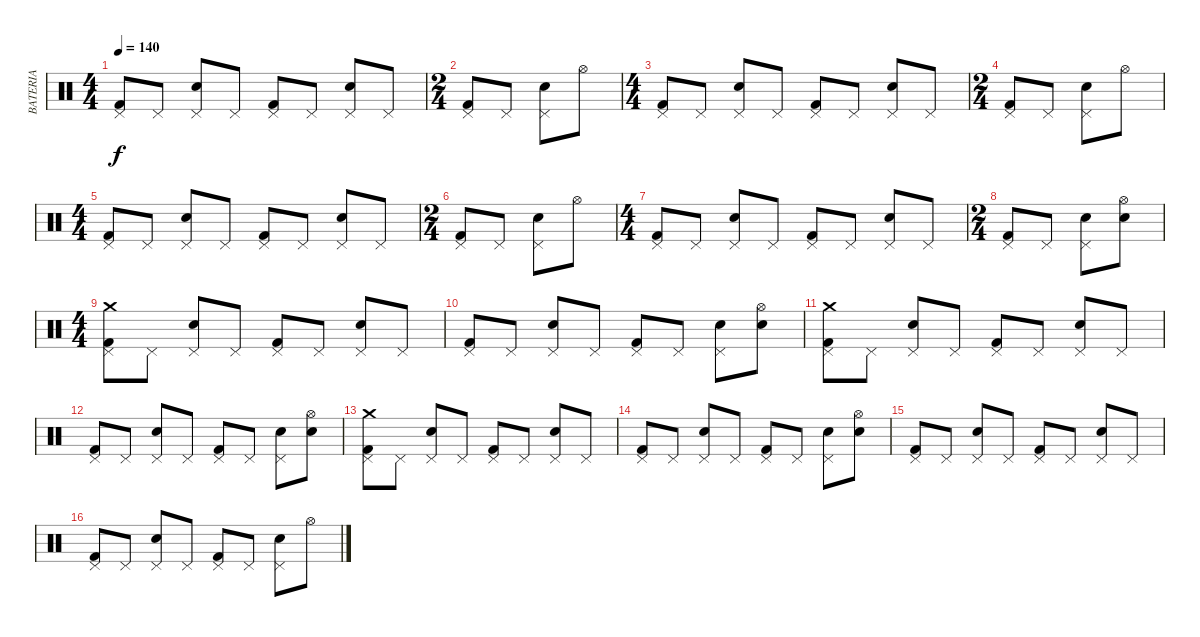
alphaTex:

\track ("BATERIA" "BATERIA") {instrument percussion}
\staff {score}
\articulation defaults
\ts (4 4)
\tempo 140
\clef neutral
\ks c
("Kick (hit) 2" "Pedal Hi-Hat (hit)").8{dy f} "Pedal Hi-Hat (hit)".8 ("Snare (hit) 2" "Pedal Hi-Hat (hit)").8 "Pedal Hi-Hat (hit)".8 ("Kick (hit) 2" "Pedal Hi-Hat (hit)").8 "Pedal Hi-Hat (hit)".8 ("Snare (hit) 2" "Pedal Hi-Hat (hit)").8 "Pedal Hi-Hat (hit)".8 |
\ts (2 4)
("Kick (hit) 2" "Pedal Hi-Hat (hit)").8 "Pedal Hi-Hat (hit)".8 ("Snare (hit) 2" "Pedal Hi-Hat (hit)").8 "Hi-Hat (open)".8 |
\ts (4 4)
("Kick (hit) 2" "Pedal Hi-Hat (hit)").8 "Pedal Hi-Hat (hit)".8 ("Snare (hit) 2" "Pedal Hi-Hat (hit)").8 "Pedal Hi-Hat (hit)".8 ("Kick (hit) 2" "Pedal Hi-Hat (hit)").8 "Pedal Hi-Hat (hit)".8 ("Snare (hit) 2" "Pedal Hi-Hat (hit)").8 "Pedal Hi-Hat (hit)".8 |
\ts (2 4)
("Kick (hit) 2" "Pedal Hi-Hat (hit)").8 "Pedal Hi-Hat (hit)".8 ("Snare (hit) 2" "Pedal Hi-Hat (hit)").8 "Hi-Hat (open)".8 |
\ts (4 4)
("Kick (hit) 2" "Pedal Hi-Hat (hit)").8 "Pedal Hi-Hat (hit)".8 ("Snare (hit) 2" "Pedal Hi-Hat (hit)").8 "Pedal Hi-Hat (hit)".8 ("Kick (hit) 2" "Pedal Hi-Hat (hit)").8 "Pedal Hi-Hat (hit)".8 ("Snare (hit) 2" "Pedal Hi-Hat (hit)").8 "Pedal Hi-Hat (hit)".8 |
\ts (2 4)
("Kick (hit) 2" "Pedal Hi-Hat (hit)").8 "Pedal Hi-Hat (hit)".8 ("Snare (hit) 2" "Pedal Hi-Hat (hit)").8 "Hi-Hat (open)".8 |
\ts (4 4)
("Kick (hit) 2" "Pedal Hi-Hat (hit)").8 "Pedal Hi-Hat (hit)".8 ("Snare (hit) 2" "Pedal Hi-Hat (hit)").8 "Pedal Hi-Hat (hit)".8 ("Kick (hit) 2" "Pedal Hi-Hat (hit)").8 "Pedal Hi-Hat (hit)".8 ("Snare (hit) 2" "Pedal Hi-Hat (hit)").8 "Pedal Hi-Hat (hit)".8 |
\ts (2 4)
("Kick (hit) 2" "Pedal Hi-Hat (hit)").8 "Pedal Hi-Hat (hit)".8 ("Snare (hit) 2" "Pedal Hi-Hat (hit)").8 ("Snare (hit) 2" "Hi-Hat (open)").8 |
\ts (4 4)
("Kick (hit) 2" "Pedal Hi-Hat (hit)" "Crash medium (hit)").8 "Pedal Hi-Hat (hit)".8 ("Snare (hit) 2" "Pedal Hi-Hat (hit)").8 "Pedal Hi-Hat (hit)".8 ("Kick (hit) 2" "Pedal Hi-Hat (hit)").8 "Pedal Hi-Hat (hit)".8 ("Snare (hit) 2" "Pedal Hi-Hat (hit)").8 "Pedal Hi-Hat (hit)".8 |
("Kick (hit) 2" "Pedal Hi-Hat (hit)").8 "Pedal Hi-Hat (hit)".8 ("Snare (hit) 2" "Pedal Hi-Hat (hit)").8 "Pedal Hi-Hat (hit)".8 ("Kick (hit) 2" "Pedal Hi-Hat (hit)").8 "Pedal Hi-Hat (hit)".8 ("Snare (hit) 2" "Pedal Hi-Hat (hit)").8 ("Snare (hit) 2" "Hi-Hat (open)").8 |
("Kick (hit) 2" "Pedal Hi-Hat (hit)" "Crash medium (hit)").8 "Pedal Hi-Hat (hit)".8 ("Snare (hit) 2" "Pedal Hi-Hat (hit)").8 "Pedal Hi-Hat (hit)".8 ("Kick (hit) 2" "Pedal Hi-Hat (hit)").8 "Pedal Hi-Hat (hit)".8 ("Snare (hit) 2" "Pedal Hi-Hat (hit)").8 "Pedal Hi-Hat (hit)".8 |
("Kick (hit) 2" "Pedal Hi-Hat (hit)").8 "Pedal Hi-Hat (hit)".8 ("Snare (hit) 2" "Pedal Hi-Hat (hit)").8 "Pedal Hi-Hat (hit)".8 ("Kick (hit) 2" "Pedal Hi-Hat (hit)").8 "Pedal Hi-Hat (hit)".8 ("Snare (hit) 2" "Pedal Hi-Hat (hit)").8 ("Snare (hit) 2" "Hi-Hat (open)").8 |
("Kick (hit) 2" "Pedal Hi-Hat (hit)" "Crash medium (hit)").8 "Pedal Hi-Hat (hit)".8 ("Snare (hit) 2" "Pedal Hi-Hat (hit)").8 "Pedal Hi-Hat (hit)".8 ("Kick (hit) 2" "Pedal Hi-Hat (hit)").8 "Pedal Hi-Hat (hit)".8 ("Snare (hit) 2" "Pedal Hi-Hat (hit)").8 "Pedal Hi-Hat (hit)".8 |
("Kick (hit) 2" "Pedal Hi-Hat (hit)").8 "Pedal Hi-Hat (hit)".8 ("Snare (hit) 2" "Pedal Hi-Hat (hit)").8 "Pedal Hi-Hat (hit)".8 ("Kick (hit) 2" "Pedal Hi-Hat (hit)").8 "Pedal Hi-Hat (hit)".8 ("Snare (hit) 2" "Pedal Hi-Hat (hit)").8 ("Snare (hit) 2" "Hi-Hat (open)").8 |
("Kick (hit) 2" "Pedal Hi-Hat (hit)").8 "Pedal Hi-Hat (hit)".8 ("Snare (hit) 2" "Pedal Hi-Hat (hit)").8 "Pedal Hi-Hat (hit)".8 ("Kick (hit) 2" "Pedal Hi-Hat (hit)").8 "Pedal Hi-Hat (hit)".8 ("Snare (hit) 2" "Pedal Hi-Hat (hit)").8 "Pedal Hi-Hat (hit)".8 |
("Kick (hit) 2" "Pedal Hi-Hat (hit)").8 "Pedal Hi-Hat (hit)".8 ("Snare (hit) 2" "Pedal Hi-Hat (hit)").8 "Pedal Hi-Hat (hit)".8 ("Kick (hit) 2" "Pedal Hi-Hat (hit)").8 "Pedal Hi-Hat (hit)".8 ("Snare (hit) 2" "Pedal Hi-Hat (hit)").8 "Hi-Hat (open)".8
